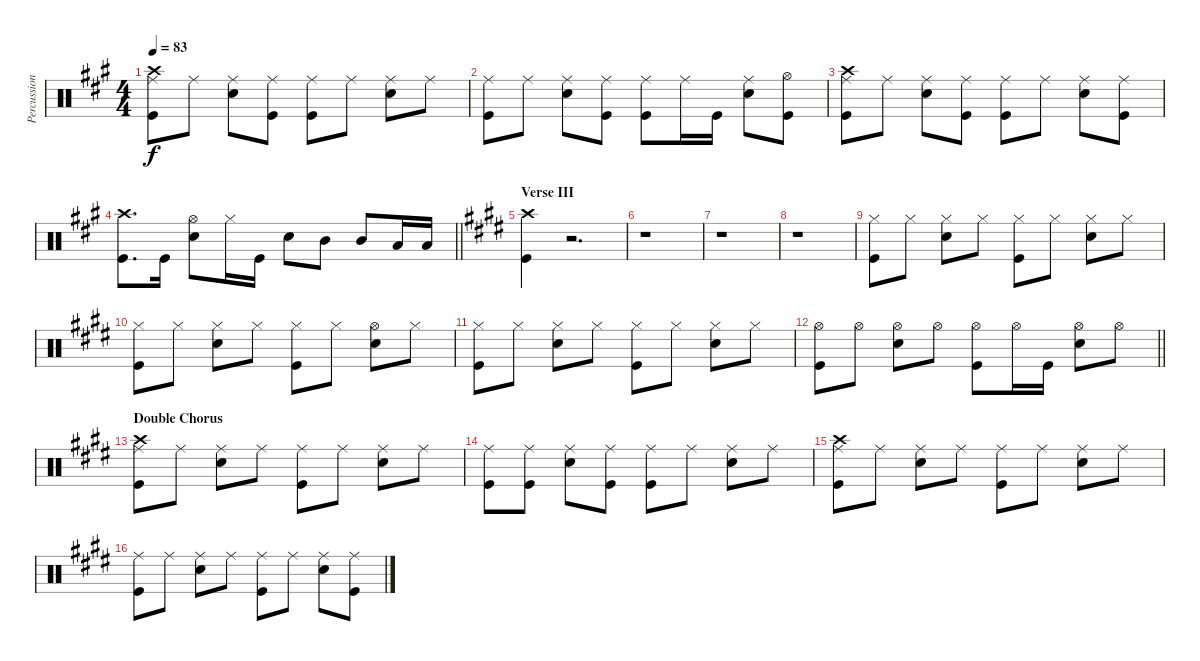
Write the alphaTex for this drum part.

\track ("Percussion" "Percussion") {instrument percussion}
\staff {score}
\articulation defaults
\ts (4 4)
\tempo 83
\clef neutral
\ks a
("Crash high (hit)" "Ride (middle)" "Kick (hit)").8{dy f} "Ride (middle)".8 ("Ride (middle)" "Electric Snare (hit)").8 ("Ride (middle)" "Kick (hit)").8 ("Ride (middle)" "Kick (hit)").8 "Ride (middle)".8 ("Ride (middle)" "Electric Snare (hit)").8 "Ride (middle)".8 |
("Ride (middle)" "Kick (hit)").8 "Ride (middle)".8 ("Ride (middle)" "Electric Snare (hit)").8 ("Ride (middle)" "Kick (hit)").8 ("Ride (middle)" "Kick (hit)").8 "Ride (middle)".16 "Kick (hit)".16 ("Ride (middle)" "Electric Snare (hit)").8 ("Hi-Hat (open)" "Kick (hit)").8 |
("Crash high (hit)" "Ride (middle)" "Kick (hit)").8 "Ride (middle)".8 ("Ride (middle)" "Electric Snare (hit)").8 ("Ride (middle)" "Kick (hit)").8 ("Ride (middle)" "Kick (hit)").8 "Ride (middle)".8 ("Ride (middle)" "Electric Snare (hit)").8 ("Ride (middle)" "Kick (hit)").8 |
\barLineRight lightlight
("Crash high (hit)" "Kick (hit)").8{d} "Kick (hit)".16 ("Hi-Hat (open)" "Electric Snare (hit)").8 "Hi-Hat (closed)".16 "Kick (hit)".16 "Electric Snare (hit)".8 "Mid Tom (hit)".8 "Mid Tom (hit)".8 "Low Tom (hit)".16 "Low Tom (hit)".16 |
\section ("" "Verse III")
\ks e
("Crash high (hit)" "Kick (hit)").4 r.2{d} |
r.1 |
r.1 |
r.1 |
("Hi-Hat (closed)" "Kick (hit)").8 "Hi-Hat (closed)".8 ("Hi-Hat (closed)" "Electric Snare (hit)").8 "Hi-Hat (closed)".8 ("Hi-Hat (closed)" "Kick (hit)").8 "Hi-Hat (closed)".8 ("Hi-Hat (closed)" "Electric Snare (hit)").8 "Hi-Hat (closed)".8 |
("Hi-Hat (closed)" "Kick (hit)").8 "Hi-Hat (closed)".8 ("Hi-Hat (closed)" "Electric Snare (hit)").8 "Hi-Hat (closed)".8 ("Hi-Hat (closed)" "Kick (hit)").8 "Hi-Hat (closed)".8 ("Hi-Hat (open)" "Electric Snare (hit)").8 "Hi-Hat (closed)".8 |
("Hi-Hat (closed)" "Kick (hit)").8 "Hi-Hat (closed)".8 ("Hi-Hat (closed)" "Electric Snare (hit)").8 "Hi-Hat (closed)".8 ("Hi-Hat (closed)" "Kick (hit)").8 "Hi-Hat (closed)".8 ("Hi-Hat (closed)" "Electric Snare (hit)").8 "Hi-Hat (closed)".8 |
\barLineRight lightlight
("Hi-Hat (open)" "Kick (hit)").8 "Hi-Hat (open)".8 ("Hi-Hat (open)" "Electric Snare (hit)").8 "Hi-Hat (open)".8 ("Hi-Hat (open)" "Kick (hit)").8 "Hi-Hat (open)".16 "Kick (hit)".16 ("Hi-Hat (open)" "Electric Snare (hit)").8 "Hi-Hat (open)".8 |
\section ("" "Double Chorus")
("Crash high (hit)" "Ride (middle)" "Kick (hit)").8 "Ride (middle)".8 ("Ride (middle)" "Electric Snare (hit)").8 "Ride (middle)".8 ("Ride (middle)" "Kick (hit)").8 "Ride (middle)".8 ("Ride (middle)" "Electric Snare (hit)").8 "Ride (middle)".8 |
("Ride (middle)" "Kick (hit)").8 ("Ride (middle)" "Kick (hit)").8 ("Ride (middle)" "Electric Snare (hit)").8 ("Ride (middle)" "Kick (hit)").8 ("Ride (middle)" "Kick (hit)").8 "Ride (middle)".8 ("Ride (middle)" "Electric Snare (hit)").8 "Ride (middle)".8 |
("Crash high (hit)" "Ride (middle)" "Kick (hit)").8 "Ride (middle)".8 ("Ride (middle)" "Electric Snare (hit)").8 "Ride (middle)".8 ("Ride (middle)" "Kick (hit)").8 "Ride (middle)".8 ("Ride (middle)" "Electric Snare (hit)").8 "Ride (middle)".8 |
("Ride (middle)" "Kick (hit)").8 "Ride (middle)".8 ("Ride (middle)" "Electric Snare (hit)").8 "Ride (middle)".8 ("Ride (middle)" "Kick (hit)").8 "Ride (middle)".8 ("Ride (middle)" "Electric Snare (hit)").8 ("Ride (middle)" "Kick (hit)").8
